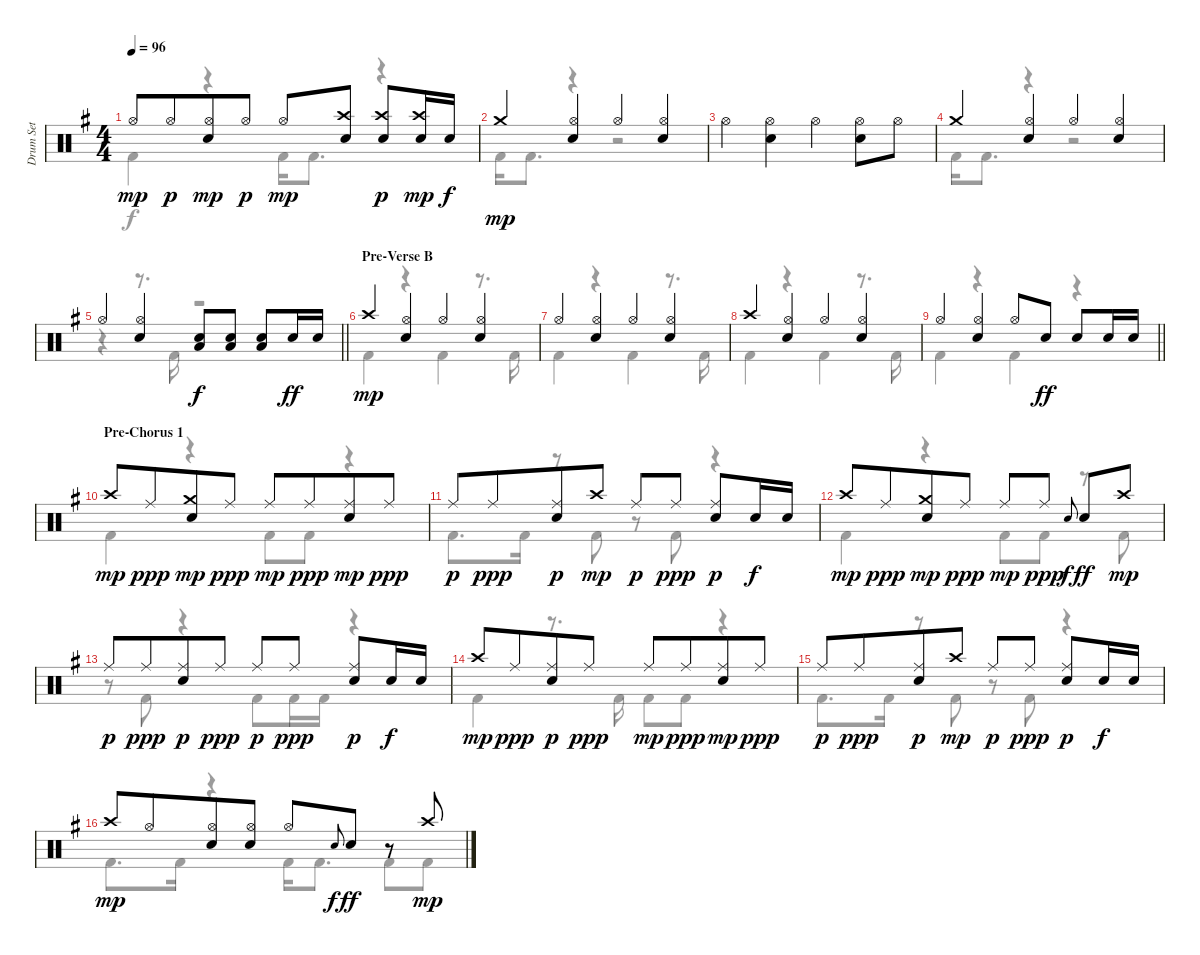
\track ("Drum Set" "Drum Set") {instrument percussion}
\staff {score}
\articulation defaults
\voice
\ts (4 4)
\tempo 96
\clef neutral
\ks g "Hi-Hat (open)".8{dy mp} "Hi-Hat (open)".8{dy p beam merge}
("Hi-Hat (open)" "Electric Snare (hit)").8{dy mp} "Hi-Hat (open)".8{dy p} "Hi-Hat (open)".8{dy mp} ("Crash high (hit)" "Electric Snare (hit)").8 ("Electric Snare (hit)" "Crash high (hit)").8{dy p} ("Crash high (hit)" "Electric Snare (hit)").16{dy mp} "Electric Snare (hit)".16{dy f} |
"Crash medium (hit)".4{dy mp} ("Hi-Hat (open)" "Electric Snare (hit)").4 "Hi-Hat (open)".4 ("Hi-Hat (open)" "Electric Snare (hit)").4 |
"Hi-Hat (open)".4 ("Hi-Hat (open)" "Electric Snare (hit)").4 "Hi-Hat (open)".4 ("Hi-Hat (open)" "Electric Snare (hit)").8 "Hi-Hat (open)".8 |
"Crash medium (hit)".4 ("Hi-Hat (open)" "Electric Snare (hit)").4 "Hi-Hat (open)".4 ("Hi-Hat (open)" "Electric Snare (hit)").4 |
\barLineRight lightlight "Hi-Hat (open)".4
("Hi-Hat (open)" "Electric Snare (hit)").4 ("Electric Snare (hit)" "Low Tom (hit)").8{dy f} ("Electric Snare (hit)" "Low Tom (hit)").8 ("Electric Snare (hit)" "Low Tom (hit)").8 "Electric Snare (hit)".16{dy ff} "Electric Snare (hit)".16 |
\section ("" "Pre-Verse B")
"Crash high (hit)".4{dy mp} ("Electric Snare (hit)" "Hi-Hat (open)").4 "Hi-Hat (open)".4 ("Electric Snare (hit)" "Hi-Hat (open)").4 |
"Hi-Hat (open)".4 ("Electric Snare (hit)" "Hi-Hat (open)").4 "Hi-Hat (open)".4 ("Electric Snare (hit)" "Hi-Hat (open)").4 |
"Crash high (hit)".4 ("Electric Snare (hit)" "Hi-Hat (open)").4 "Hi-Hat (open)".4 ("Electric Snare (hit)" "Hi-Hat (open)").4 |
\barLineRight lightlight "Hi-Hat (open)".4
("Electric Snare (hit)" "Hi-Hat (open)").4 "Hi-Hat (open)".8 "Electric Snare (hit)".8{dy ff} "Electric Snare (hit)".8 "Electric Snare (hit)".16 "Electric Snare (hit)".16 |
\section ("" "Pre-Chorus 1")
"Crash high (hit)".8{dy mp} "Ride (middle)".8{dy ppp beam merge} ("Electric Snare (hit)" "Crash medium (hit)").8{dy mp} "Ride (middle)".8{dy ppp} "Ride (middle)".8{dy mp} "Ride (middle)".8{dy ppp beam merge} ("Ride (middle)" "Electric Snare (hit)").8{dy mp} "Ride (middle)".8{dy ppp} |
"Ride (middle)".8{dy p} "Ride (middle)".8{dy ppp beam merge} ("Ride (middle)" "Electric Snare (hit)").8{dy p} "Crash high (hit)".8{dy mp} "Ride (middle)".8{dy p} "Ride (middle)".8{dy ppp} ("Ride (middle)" "Electric Snare (hit)").8{dy p} "Electric Snare (hit)".16{dy f} "Electric Snare (hit)".16 |
"Crash high (hit)".8{dy mp} "Ride (middle)".8{dy ppp beam merge} ("Electric Snare (hit)" "Crash medium (hit)").8{dy mp} "Ride (middle)".8{dy ppp} "Ride (middle)".8{dy mp} "Ride (middle)".8{dy ppp} "Electric Snare (hit)".8{gr onbeat dy f beam merge} "Electric Snare (hit)".8{dy ff} "Crash high (hit)".8{dy mp} |
"Ride (middle)".8{dy p} "Ride (middle)".8{dy ppp beam merge} ("Ride (middle)" "Electric Snare (hit)").8{dy p} "Ride (middle)".8{dy ppp} "Ride (middle)".8{dy p} "Ride (middle)".8{dy ppp} ("Ride (middle)" "Electric Snare (hit)").8{dy p} "Electric Snare (hit)".16{dy f} "Electric Snare (hit)".16 |
"Crash high (hit)".8{dy mp} "Ride (middle)".8{dy ppp beam merge} ("Electric Snare (hit)" "Ride (middle)").8{dy p} "Ride (middle)".8{dy ppp} "Ride (middle)".8{dy mp} "Ride (middle)".8{dy ppp beam merge} ("Ride (middle)" "Electric Snare (hit)").8{dy mp} "Ride (middle)".8{dy ppp} |
"Ride (middle)".8{dy p} "Ride (middle)".8{dy ppp beam merge} ("Ride (middle)" "Electric Snare (hit)").8{dy p} "Crash high (hit)".8{dy mp} "Ride (middle)".8{dy p} "Ride (middle)".8{dy ppp} ("Ride (middle)" "Electric Snare (hit)").8{dy p} "Electric Snare (hit)".16{dy f} "Electric Snare (hit)".16 |
"Crash high (hit)".8{dy mp} "Hi-Hat (open)".8{beam merge} ("Electric Snare (hit)" "Hi-Hat (open)").8 ("Electric Snare (hit)" "Hi-Hat (open)").8 "Hi-Hat (open)".8 "Electric Snare (hit)".8{gr onbeat dy f} "Electric Snare (hit)".8{dy ff} r.8 "Crash high (hit)".8{dy mp}
\voice
\clef neutral
\ottava regular
\simile none
\ks g "Kick (hit) 2".4{dy f}
r.4 "Kick (hit) 2".16 "Kick (hit) 2".8{d} r.4 |
"Kick (hit) 2".16 "Kick (hit) 2".8{d} r.4 r.2 |
|
"Kick (hit) 2".16 "Kick (hit) 2".8{d} r.4 r.2 |
\barLineRight lightlight
r.4 r.8{d} "Kick (hit) 2".16 r.2 |
"Kick (hit) 2".4 r.4 "Kick (hit) 2".4 r.8{d} "Kick (hit) 2".16 |
"Kick (hit) 2".4 r.4 "Kick (hit) 2".4 r.8{d} "Kick (hit) 2".16 |
"Kick (hit) 2".4 r.4 "Kick (hit) 2".4 r.8{d} "Kick (hit) 2".16 |
\barLineRight lightlight "Kick (hit) 2".4
r.4 "Kick (hit) 2".4 r.4 |
"Kick (hit) 2".4 r.4 "Kick (hit) 2".8 "Kick (hit) 2".8 r.4 |
"Kick (hit) 2".8{d} "Kick (hit) 2".16 r.8 "Kick (hit) 2".8 r.8 "Kick (hit) 2".8 r.4 |
"Kick (hit) 2".4 r.4 "Kick (hit) 2".8 "Kick (hit) 2".8 r.8 "Kick (hit) 2".8 |
r.8 "Kick (hit) 2".8 r.4 "Kick (hit) 2".8 "Kick (hit) 2".16 "Kick (hit) 2".16 r.4 |
"Kick (hit) 2".4 r.8{d} "Kick (hit) 2".16 "Kick (hit) 2".8 "Kick (hit) 2".8 r.4 |
"Kick (hit) 2".8{d} "Kick (hit) 2".16 r.8 "Kick (hit) 2".8 r.8 "Kick (hit) 2".8 r.4 |
"Kick (hit) 2".8{d} "Kick (hit) 2".16 r.4 "Kick (hit) 2".16 "Kick (hit) 2".8{d} "Kick (hit) 2".8 "Kick (hit) 2".8
